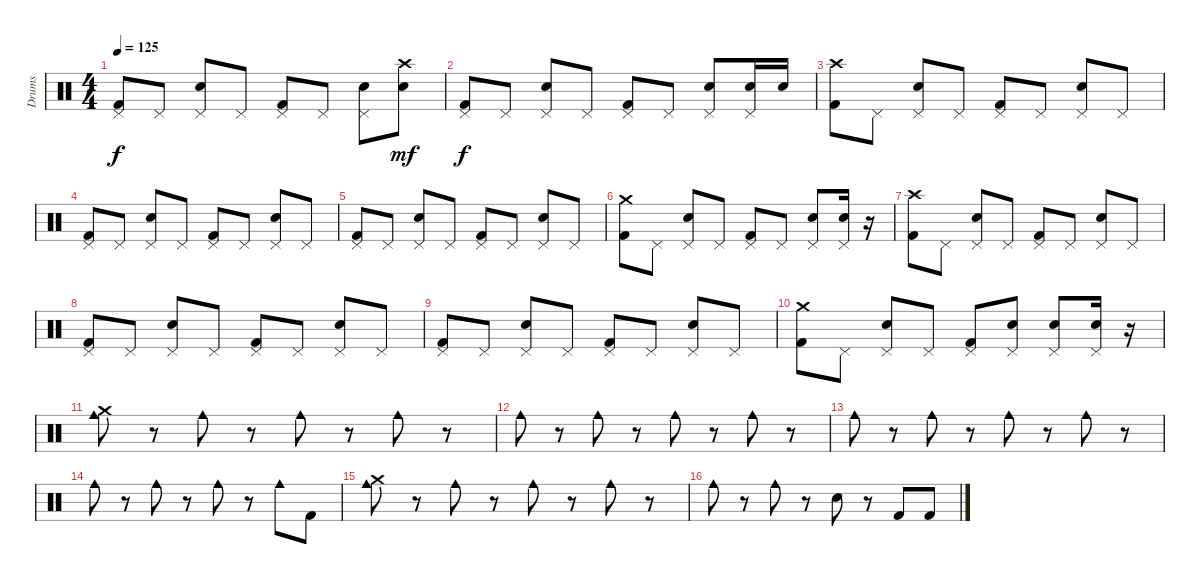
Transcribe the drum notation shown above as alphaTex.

\track ("Drums" "Drums") {instrument percussion}
\staff {score}
\articulation defaults
\ts (4 4)
\tempo 125
\clef neutral
\ks c
("Pedal Hi-Hat (hit)" "Kick (hit) 2").8{dy f} "Pedal Hi-Hat (hit)".8 ("Pedal Hi-Hat (hit)" "Snare (hit) 2").8 "Pedal Hi-Hat (hit)".8 ("Pedal Hi-Hat (hit)" "Kick (hit) 2").8 "Pedal Hi-Hat (hit)".8 ("Pedal Hi-Hat (hit)" "Snare (hit) 2").8 ("Crash high (hit)" "Snare (hit) 2").8{dy mf} |
("Pedal Hi-Hat (hit)" "Kick (hit) 2").8{dy f} "Pedal Hi-Hat (hit)".8 ("Pedal Hi-Hat (hit)" "Snare (hit) 2").8 "Pedal Hi-Hat (hit)".8 ("Pedal Hi-Hat (hit)" "Kick (hit) 2").8 "Pedal Hi-Hat (hit)".8 ("Pedal Hi-Hat (hit)" "Snare (hit) 2").8 ("Pedal Hi-Hat (hit)" "Snare (hit) 2").16 "Snare (hit) 2".16 |
("Crash high (hit)" "Kick (hit) 2").8 "Pedal Hi-Hat (hit)".8 ("Pedal Hi-Hat (hit)" "Snare (hit) 2").8 "Pedal Hi-Hat (hit)".8 ("Pedal Hi-Hat (hit)" "Kick (hit) 2").8 "Pedal Hi-Hat (hit)".8 ("Pedal Hi-Hat (hit)" "Snare (hit) 2").8 "Pedal Hi-Hat (hit)".8 |
("Pedal Hi-Hat (hit)" "Kick (hit) 2").8 "Pedal Hi-Hat (hit)".8 ("Pedal Hi-Hat (hit)" "Snare (hit) 2").8 "Pedal Hi-Hat (hit)".8 ("Pedal Hi-Hat (hit)" "Kick (hit) 2").8 "Pedal Hi-Hat (hit)".8 ("Pedal Hi-Hat (hit)" "Snare (hit) 2").8 "Pedal Hi-Hat (hit)".8 |
("Pedal Hi-Hat (hit)" "Kick (hit) 2").8 "Pedal Hi-Hat (hit)".8 ("Pedal Hi-Hat (hit)" "Snare (hit) 2").8 "Pedal Hi-Hat (hit)".8 ("Pedal Hi-Hat (hit)" "Kick (hit) 2").8 "Pedal Hi-Hat (hit)".8 ("Pedal Hi-Hat (hit)" "Snare (hit) 2").8 "Pedal Hi-Hat (hit)".8 |
("Crash medium (hit)" "Kick (hit) 2").8 "Pedal Hi-Hat (hit)".8 ("Pedal Hi-Hat (hit)" "Snare (hit) 2").8 "Pedal Hi-Hat (hit)".8 ("Pedal Hi-Hat (hit)" "Kick (hit) 2").8 "Pedal Hi-Hat (hit)".8 ("Pedal Hi-Hat (hit)" "Snare (hit) 2").8 ("Pedal Hi-Hat (hit)" "Snare (hit) 2").16 r.16 |
("Crash high (hit)" "Kick (hit) 2").8 "Pedal Hi-Hat (hit)".8 ("Pedal Hi-Hat (hit)" "Snare (hit) 2").8 "Pedal Hi-Hat (hit)".8 ("Pedal Hi-Hat (hit)" "Kick (hit) 2").8 "Pedal Hi-Hat (hit)".8 ("Pedal Hi-Hat (hit)" "Snare (hit) 2").8 "Pedal Hi-Hat (hit)".8 |
("Pedal Hi-Hat (hit)" "Kick (hit) 2").8 "Pedal Hi-Hat (hit)".8 ("Pedal Hi-Hat (hit)" "Snare (hit) 2").8 "Pedal Hi-Hat (hit)".8 ("Pedal Hi-Hat (hit)" "Kick (hit) 2").8 "Pedal Hi-Hat (hit)".8 ("Pedal Hi-Hat (hit)" "Snare (hit) 2").8 "Pedal Hi-Hat (hit)".8 |
("Pedal Hi-Hat (hit)" "Kick (hit) 2").8 "Pedal Hi-Hat (hit)".8 ("Pedal Hi-Hat (hit)" "Snare (hit) 2").8 "Pedal Hi-Hat (hit)".8 ("Pedal Hi-Hat (hit)" "Kick (hit) 2").8 "Pedal Hi-Hat (hit)".8 ("Pedal Hi-Hat (hit)" "Snare (hit) 2").8 "Pedal Hi-Hat (hit)".8 |
("Crash medium (hit)" "Kick (hit) 2").8 "Pedal Hi-Hat (hit)".8 ("Pedal Hi-Hat (hit)" "Snare (hit) 2").8 "Pedal Hi-Hat (hit)".8 ("Pedal Hi-Hat (hit)" "Kick (hit) 2").8 ("Pedal Hi-Hat (hit)" "Snare (hit) 2").8 ("Pedal Hi-Hat (hit)" "Snare (hit) 2").8 ("Pedal Hi-Hat (hit)" "Snare (hit) 2").16 r.16 |
("Crash medium (hit)" "Cowbell medium (hit)").8 r.8 "Cowbell medium (hit)".8 r.8 "Cowbell medium (hit)".8 r.8 "Cowbell medium (hit)".8 r.8 |
"Cowbell medium (hit)".8 r.8 "Cowbell medium (hit)".8 r.8 "Cowbell medium (hit)".8 r.8 "Cowbell medium (hit)".8 r.8 |
"Cowbell medium (hit)".8 r.8 "Cowbell medium (hit)".8 r.8 "Cowbell medium (hit)".8 r.8 "Cowbell medium (hit)".8 r.8 |
"Cowbell medium (hit)".8 r.8 "Cowbell medium (hit)".8 r.8 "Cowbell medium (hit)".8 r.8 "Cowbell medium (hit)".8 "Kick (hit) 2".8 |
("Crash medium (hit)" "Cowbell medium (hit)").8 r.8 "Cowbell medium (hit)".8 r.8 "Cowbell medium (hit)".8 r.8 "Cowbell medium (hit)".8 r.8 |
"Cowbell medium (hit)".8 r.8 "Cowbell medium (hit)".8 r.8 "Snare (hit) 2".8 r.8 "Kick (hit) 2".8 "Kick (hit) 2".8
